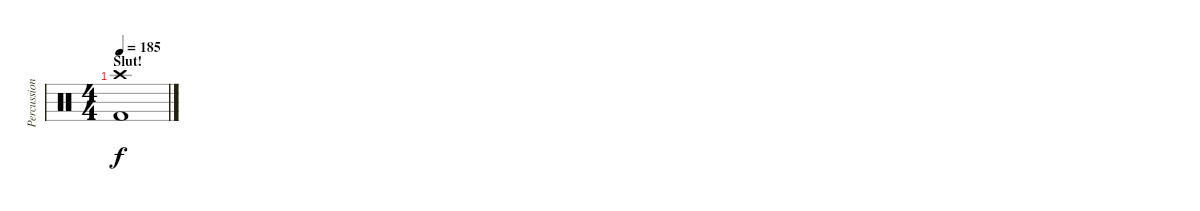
\track ("Percussion" "Percussion") {instrument percussion}
\staff {score}
\articulation defaults
\ts (4 4)
\section ("" "Slut!")
\tempo 185
\clef neutral
\ks c
("Crash high (hit)" "Kick (hit) 2").1{dy f}
